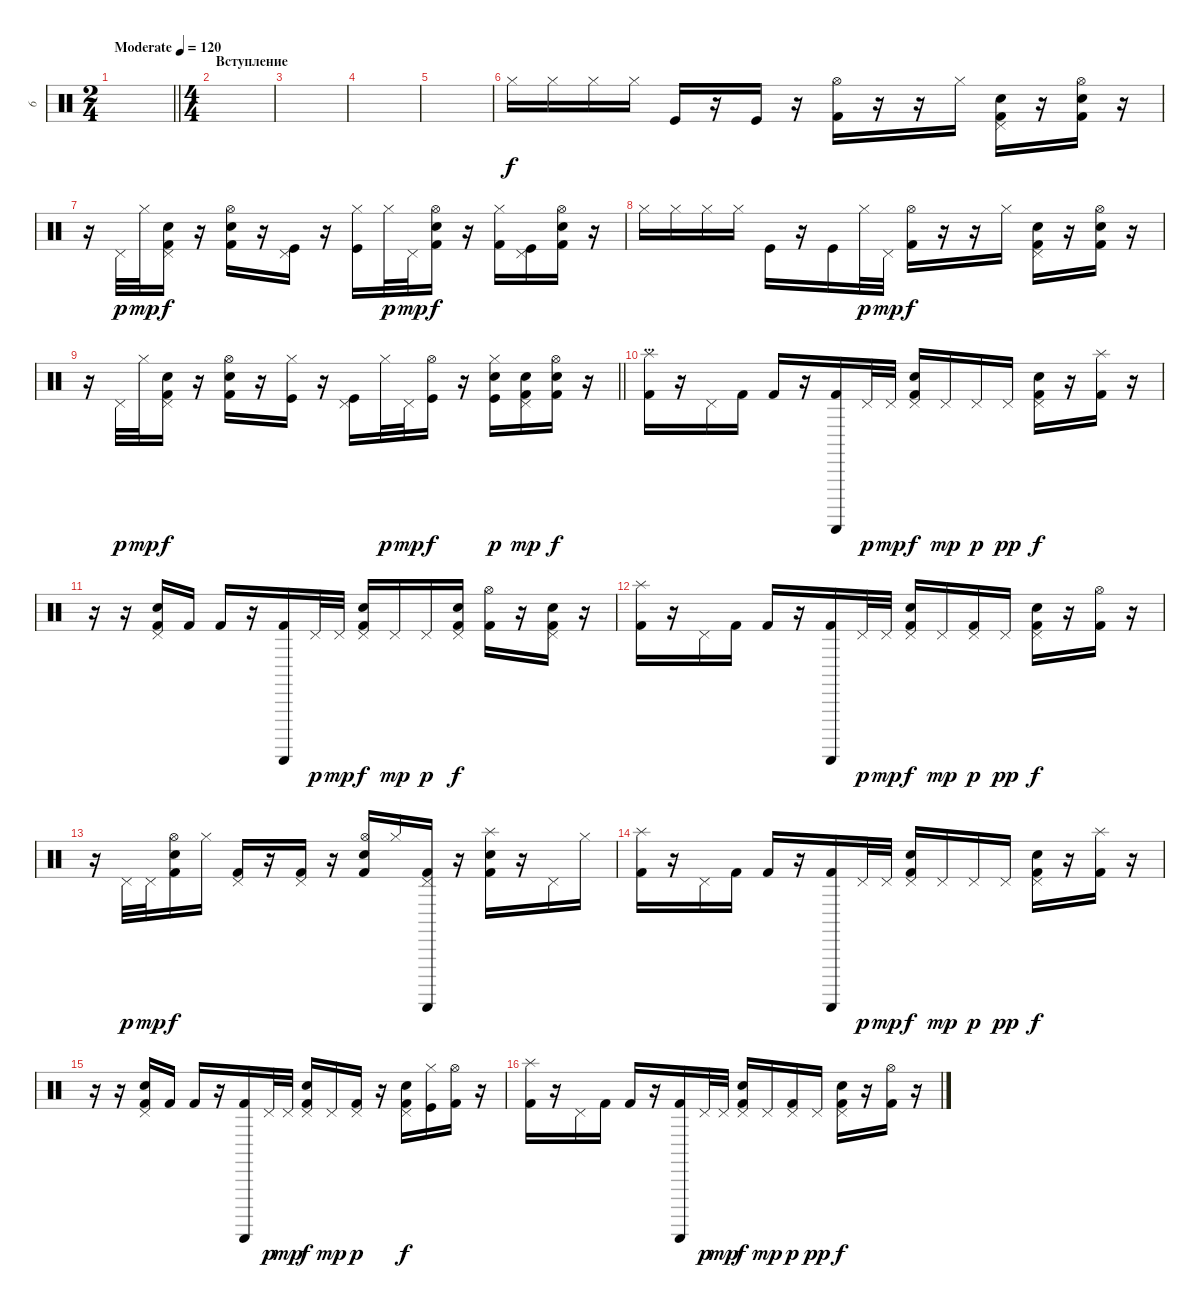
\track ("6" "6") {instrument percussion}
\staff {score}
\articulation defaults
\ts (2 4)
\tempo (120 "Moderate")
\clef neutral
\barLineRight lightlight
\ks c
|
\ts (4 4)
\section ("" "Вступление")
|
|
|
|
"Hi-Hat (closed)".16 "Hi-Hat (closed)".16 "Hi-Hat (closed)".16 "Hi-Hat (closed)".16 "Kick (hit)".16 r.16 "Kick (hit)".16 r.16 ("Hi-Hat (open)" "Kick (hit) 2").16 r.16 r.16 "Hi-Hat (closed)".16 ("Pedal Hi-Hat (hit)" "Kick (hit) 2" "Hand Clap (hit)").16 r.16 ("Hi-Hat (open)" "Kick (hit) 2" "Hand Clap (hit)").16 r.16 |
r.16 "Pedal Hi-Hat (hit)".32{dy p} "Hi-Hat (closed)".32{dy mp} ("Pedal Hi-Hat (hit)" "Kick (hit) 2" "Hand Clap (hit)").16{dy f} r.16 ("Hi-Hat (open)" "Kick (hit) 2" "Hand Clap (hit)").16 r.16 ("Pedal Hi-Hat (hit)" "Kick (hit)").16 r.16 ("Hi-Hat (closed)" "Kick (hit)").16 "Hi-Hat (closed)".32{dy p} "Pedal Hi-Hat (hit)".32{dy mp} ("Hi-Hat (open)" "Kick (hit) 2" "Hand Clap (hit)").16{dy f} r.16 ("Hi-Hat (closed)" "Kick (hit) 2").16 ("Pedal Hi-Hat (hit)" "Kick (hit)").16 ("Hi-Hat (open)" "Kick (hit) 2" "Hand Clap (hit)").16 r.16 |
"Hi-Hat (closed)".16 "Hi-Hat (closed)".16 "Hi-Hat (closed)".16 "Hi-Hat (closed)".16 "Kick (hit)".16 r.16 "Kick (hit)".16 "Hi-Hat (closed)".32{dy p} "Pedal Hi-Hat (hit)".32{dy mp} ("Hi-Hat (open)" "Kick (hit) 2").16{dy f} r.16 r.16 "Hi-Hat (closed)".16 ("Pedal Hi-Hat (hit)" "Kick (hit) 2" "Hand Clap (hit)").16 r.16 ("Hi-Hat (open)" "Kick (hit) 2" "Hand Clap (hit)").16 r.16 |
\barLineRight lightlight
r.16 "Pedal Hi-Hat (hit)".32{dy p} "Hi-Hat (closed)".32{dy mp} ("Pedal Hi-Hat (hit)" "Kick (hit) 2" "Hand Clap (hit)").16{dy f} r.16 ("Hi-Hat (open)" "Kick (hit) 2" "Hand Clap (hit)").16 r.16 ("Hi-Hat (closed)" "Kick (hit)").16 r.16 ("Pedal Hi-Hat (hit)" "Kick (hit)").16 "Hi-Hat (closed)".32{dy p} "Pedal Hi-Hat (hit)".32{dy mp} ("Hi-Hat (open)" "Kick (hit)").16{dy f} r.16 ("Hi-Hat (closed)" "Hand Clap (hit)" "Kick (hit)").16{dy p} ("Pedal Hi-Hat (hit)" "Hand Clap (hit)" "Kick (hit) 2").16{dy mp} ("Hi-Hat (open)" "Kick (hit) 2" "Hand Clap (hit)").16{dy f} r.16 |
\section ("" "...")
("Splash (hit)" "Kick (hit) 2").16 r.16 "Pedal Hi-Hat (hit)".16 "Kick (hit) 2".16 "Kick (hit) 2".16 r.16 ("Guiro (scrap-return)" "Kick (hit) 2").16 "Pedal Hi-Hat (hit)".32{dy p} "Pedal Hi-Hat (hit)".32{dy mp} ("Pedal Hi-Hat (hit)" "Kick (hit) 2" "Hand Clap (hit)").16{dy f} "Pedal Hi-Hat (hit)".16{dy mp} "Pedal Hi-Hat (hit)".16{dy p} "Pedal Hi-Hat (hit)".16{dy pp} ("Pedal Hi-Hat (hit)" "Kick (hit) 2" "Hand Clap (hit)").16{dy f} r.16 ("Splash (hit)" "Kick (hit) 2").16 r.16 |
r.16 r.16 ("Pedal Hi-Hat (hit)" "Kick (hit) 2" "Hand Clap (hit)").16 "Kick (hit) 2".16 "Kick (hit) 2".16 r.16 ("Guiro (scrap-return)" "Kick (hit) 2").16 "Pedal Hi-Hat (hit)".32{dy p} "Pedal Hi-Hat (hit)".32{dy mp} ("Pedal Hi-Hat (hit)" "Kick (hit) 2" "Hand Clap (hit)").16{dy f} "Pedal Hi-Hat (hit)".16{dy mp} "Pedal Hi-Hat (hit)".16{dy p} ("Pedal Hi-Hat (hit)" "Kick (hit) 2" "Hand Clap (hit)").16{dy f} ("Hi-Hat (open)" "Kick (hit) 2").16 r.16 ("Pedal Hi-Hat (hit)" "Hand Clap (hit)" "Kick (hit) 2").16 r.16 |
("Splash (hit)" "Kick (hit) 2").16 r.16 "Pedal Hi-Hat (hit)".16 "Kick (hit) 2".16 "Kick (hit) 2".16 r.16 ("Guiro (scrap-return)" "Kick (hit) 2").16 "Pedal Hi-Hat (hit)".32{dy p} "Pedal Hi-Hat (hit)".32{dy mp} ("Pedal Hi-Hat (hit)" "Kick (hit) 2" "Hand Clap (hit)").16{dy f} "Pedal Hi-Hat (hit)".16{dy mp} ("Pedal Hi-Hat (hit)" "Kick (hit) 2").16{dy p} "Pedal Hi-Hat (hit)".16{dy pp} ("Pedal Hi-Hat (hit)" "Kick (hit) 2" "Hand Clap (hit)").16{dy f} r.16 ("Hi-Hat (open)" "Kick (hit) 2").16 r.16 |
r.16 "Pedal Hi-Hat (hit)".32{dy p} "Pedal Hi-Hat (hit)".32{dy mp} ("Hi-Hat (open)" "Kick (hit) 2" "Hand Clap (hit)").16{dy f} "Hi-Hat (closed)".16 ("Pedal Hi-Hat (hit)" "Kick (hit) 2").16 r.16 ("Pedal Hi-Hat (hit)" "Kick (hit) 2").16 r.16 ("Hi-Hat (open)" "Kick (hit) 2" "Hand Clap (hit)").16 "Hi-Hat (closed)".16 ("Pedal Hi-Hat (hit)" "Guiro (scrap-return)" "Kick (hit) 2").16 r.16 ("Splash (hit)" "Kick (hit) 2" "Hand Clap (hit)").16 r.16 "Pedal Hi-Hat (hit)".16 "Hi-Hat (closed)".16 |
("Splash (hit)" "Kick (hit) 2").16 r.16 "Pedal Hi-Hat (hit)".16 "Kick (hit) 2".16 "Kick (hit) 2".16 r.16 ("Guiro (scrap-return)" "Kick (hit) 2").16 "Pedal Hi-Hat (hit)".32{dy p} "Pedal Hi-Hat (hit)".32{dy mp} ("Pedal Hi-Hat (hit)" "Kick (hit) 2" "Hand Clap (hit)").16{dy f} "Pedal Hi-Hat (hit)".16{dy mp} "Pedal Hi-Hat (hit)".16{dy p} "Pedal Hi-Hat (hit)".16{dy pp} ("Pedal Hi-Hat (hit)" "Kick (hit) 2" "Hand Clap (hit)").16{dy f} r.16 ("Splash (hit)" "Kick (hit) 2").16 r.16 |
r.16 r.16 ("Pedal Hi-Hat (hit)" "Kick (hit) 2" "Hand Clap (hit)").16 "Kick (hit) 2".16 "Kick (hit) 2".16 r.16 ("Guiro (scrap-return)" "Kick (hit) 2").16 "Pedal Hi-Hat (hit)".32{dy p} "Pedal Hi-Hat (hit)".32{dy mp} ("Pedal Hi-Hat (hit)" "Kick (hit) 2" "Hand Clap (hit)").16{dy f} "Pedal Hi-Hat (hit)".16{dy mp} ("Pedal Hi-Hat (hit)" "Kick (hit) 2").16{dy p} r.16 ("Pedal Hi-Hat (hit)" "Kick (hit) 2" "Hand Clap (hit)").16{dy f} ("Hi-Hat (closed)" "Kick (hit)").16 ("Hi-Hat (open)" "Kick (hit) 2").16 r.16 |
("Splash (hit)" "Kick (hit) 2").16 r.16 "Pedal Hi-Hat (hit)".16 "Kick (hit) 2".16 "Kick (hit) 2".16 r.16 ("Guiro (scrap-return)" "Kick (hit) 2").16 "Pedal Hi-Hat (hit)".32{dy p} "Pedal Hi-Hat (hit)".32{dy mp} ("Pedal Hi-Hat (hit)" "Kick (hit) 2" "Hand Clap (hit)").16{dy f} "Pedal Hi-Hat (hit)".16{dy mp} ("Pedal Hi-Hat (hit)" "Kick (hit) 2").16{dy p} "Pedal Hi-Hat (hit)".16{dy pp} ("Pedal Hi-Hat (hit)" "Kick (hit) 2" "Hand Clap (hit)").16{dy f} r.16 ("Hi-Hat (open)" "Kick (hit) 2").16 r.16
